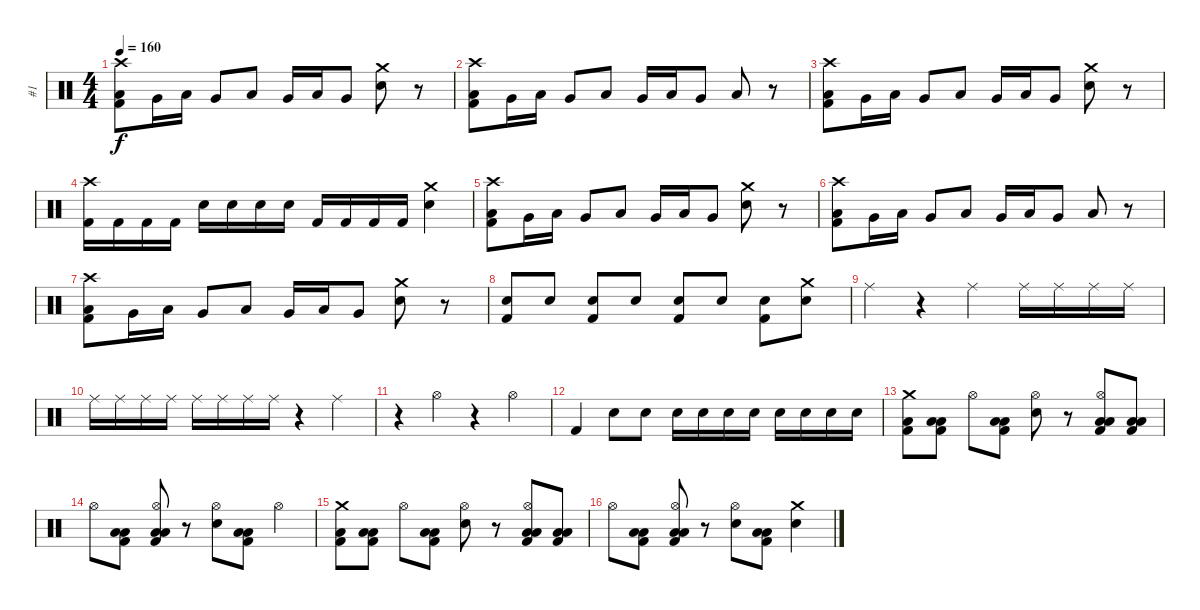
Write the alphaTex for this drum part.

\track ("#1" "#1") {instrument percussion}
\staff {score}
\articulation defaults
\ts (4 4)
\tempo 160
\clef neutral
\ks c
("Low Tom (hit)" "Kick (hit) 2" "Crash high (hit)").8{dy f} "Very Low Tom (hit)".16 "Low Tom (hit)".16 "Very Low Tom (hit)".8 "Low Tom (hit)".8 "Very Low Tom (hit)".16 "Low Tom (hit)".16 "Very Low Tom (hit)".8 ("Electric Snare (hit)" "Crash medium (hit)").8 r.8 |
("Low Tom (hit)" "Kick (hit) 2" "Crash high (hit)").8 "Very Low Tom (hit)".16 "Low Tom (hit)".16 "Very Low Tom (hit)".8 "Low Tom (hit)".8 "Very Low Tom (hit)".16 "Low Tom (hit)".16 "Very Low Tom (hit)".8 "Low Tom (hit)".8 r.8 |
("Low Tom (hit)" "Kick (hit) 2" "Crash high (hit)").8 "Very Low Tom (hit)".16 "Low Tom (hit)".16 "Very Low Tom (hit)".8 "Low Tom (hit)".8 "Very Low Tom (hit)".16 "Low Tom (hit)".16 "Very Low Tom (hit)".8 ("Electric Snare (hit)" "Crash medium (hit)").8 r.8 |
("Crash high (hit)" "Kick (hit) 2").16 "Kick (hit) 2".16 "Kick (hit) 2".16 "Kick (hit) 2".16 "Electric Snare (hit)".16 "Electric Snare (hit)".16 "Electric Snare (hit)".16 "Electric Snare (hit)".16 "Kick (hit) 2".16 "Kick (hit) 2".16 "Kick (hit) 2".16 "Kick (hit) 2".16 ("Crash medium (hit)" "Electric Snare (hit)").4 |
("Low Tom (hit)" "Kick (hit) 2" "Crash high (hit)").8 "Very Low Tom (hit)".16 "Low Tom (hit)".16 "Very Low Tom (hit)".8 "Low Tom (hit)".8 "Very Low Tom (hit)".16 "Low Tom (hit)".16 "Very Low Tom (hit)".8 ("Electric Snare (hit)" "Crash medium (hit)").8 r.8 |
("Low Tom (hit)" "Kick (hit) 2" "Crash high (hit)").8 "Very Low Tom (hit)".16 "Low Tom (hit)".16 "Very Low Tom (hit)".8 "Low Tom (hit)".8 "Very Low Tom (hit)".16 "Low Tom (hit)".16 "Very Low Tom (hit)".8 "Low Tom (hit)".8 r.8 |
("Low Tom (hit)" "Kick (hit) 2" "Crash high (hit)").8 "Very Low Tom (hit)".16 "Low Tom (hit)".16 "Very Low Tom (hit)".8 "Low Tom (hit)".8 "Very Low Tom (hit)".16 "Low Tom (hit)".16 "Very Low Tom (hit)".8 ("Electric Snare (hit)" "Crash medium (hit)").8 r.8 |
("Electric Snare (hit)" "Kick (hit) 2").8 "Electric Snare (hit)".8 ("Electric Snare (hit)" "Kick (hit) 2").8 "Electric Snare (hit)".8 ("Electric Snare (hit)" "Kick (hit) 2").8 "Electric Snare (hit)".8 ("Electric Snare (hit)" "Kick (hit) 2").8 ("Crash medium (hit)" "Electric Snare (hit)").8 |
"Ride (middle)".4 r.4 "Ride (middle)".4 "Ride (middle)".16 "Ride (middle)".16 "Ride (middle)".16 "Ride (middle)".16 |
"Ride (middle)".16 "Ride (middle)".16 "Ride (middle)".16 "Ride (middle)".16 "Ride (middle)".16 "Ride (middle)".16 "Ride (middle)".16 "Ride (middle)".16 r.4 "Ride (middle)".4 |
r.4 "Hi-Hat (open)".4 r.4 "Hi-Hat (open)".4 |
"Kick (hit) 2".4 "Electric Snare (hit)".8 "Electric Snare (hit)".8 "Electric Snare (hit)".16 "Electric Snare (hit)".16 "Electric Snare (hit)".16 "Electric Snare (hit)".16 "Electric Snare (hit)".16 "Electric Snare (hit)".16 "Electric Snare (hit)".16 "Electric Snare (hit)".16 |
("Low Tom (hit)" "Kick (hit) 2" "Crash medium (hit)").8 ("Low Tom (hit)" "Kick (hit) 2" "Low Floor Tom (hit)").8 "Hi-Hat (open)".8 ("Low Tom (hit)" "Kick (hit) 2" "Low Floor Tom (hit)").8 ("Hi-Hat (open)" "Electric Snare (hit)").8 r.8 ("Hi-Hat (open)" "Low Tom (hit)" "Kick (hit) 2" "Low Floor Tom (hit)").8 ("Low Tom (hit)" "Kick (hit) 2" "Low Floor Tom (hit)").8 |
"Hi-Hat (open)".8 ("Low Tom (hit)" "Kick (hit) 2" "Low Floor Tom (hit)").8 ("Hi-Hat (open)" "Low Tom (hit)" "Kick (hit) 2" "Low Floor Tom (hit)").8 r.8 ("Hi-Hat (open)" "Electric Snare (hit)").8 ("Low Tom (hit)" "Kick (hit) 2" "Low Floor Tom (hit)").8 "Hi-Hat (open)".4 |
("Low Tom (hit)" "Kick (hit) 2" "Crash medium (hit)").8 ("Low Tom (hit)" "Kick (hit) 2" "Low Floor Tom (hit)").8 "Hi-Hat (open)".8 ("Low Tom (hit)" "Kick (hit) 2" "Low Floor Tom (hit)").8 ("Hi-Hat (open)" "Electric Snare (hit)").8 r.8 ("Hi-Hat (open)" "Low Tom (hit)" "Kick (hit) 2" "Low Floor Tom (hit)").8 ("Low Tom (hit)" "Kick (hit) 2" "Low Floor Tom (hit)").8 |
"Hi-Hat (open)".8 ("Low Tom (hit)" "Kick (hit) 2" "Low Floor Tom (hit)").8 ("Hi-Hat (open)" "Low Tom (hit)" "Kick (hit) 2" "Low Floor Tom (hit)").8 r.8 ("Hi-Hat (open)" "Electric Snare (hit)").8 ("Low Tom (hit)" "Kick (hit) 2" "Low Floor Tom (hit)").8 ("Crash medium (hit)" "Electric Snare (hit)").4
